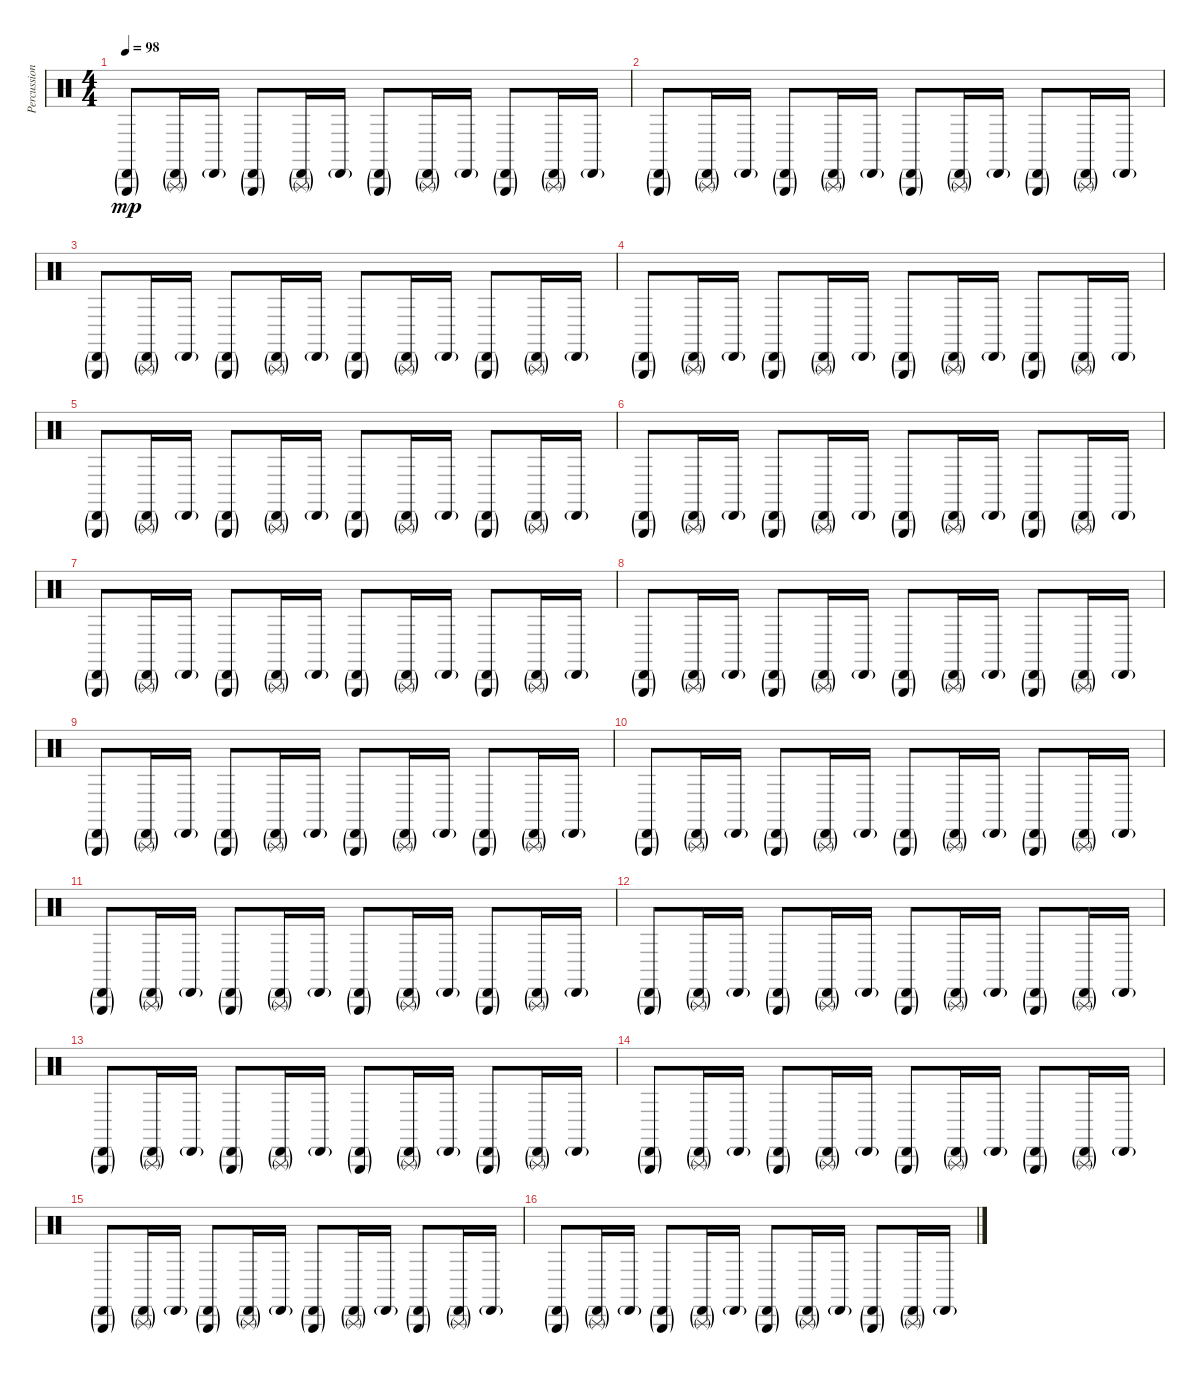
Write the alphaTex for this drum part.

\track ("Percussion" "Percussion") {instrument percussion}
\staff {score}
\articulation defaults
\ts (4 4)
\tempo 98
\clef neutral
\ks c
("Cabasa (hit)"{g} "Triangle (hit)"{g}).8{dy mp} ("Cabasa (hit)"{g} "Triangle (rnute)"{g}).16 "Cabasa (hit)"{g}.16 ("Cabasa (hit)"{g} "Triangle (hit)"{g}).8 ("Cabasa (hit)"{g} "Triangle (rnute)"{g}).16 "Cabasa (hit)"{g}.16 ("Cabasa (hit)"{g} "Triangle (hit)"{g}).8 ("Cabasa (hit)"{g} "Triangle (rnute)"{g}).16 "Cabasa (hit)"{g}.16 ("Cabasa (hit)"{g} "Triangle (hit)"{g}).8 ("Cabasa (hit)"{g} "Triangle (rnute)"{g}).16 "Cabasa (hit)"{g}.16 |
("Cabasa (hit)"{g} "Triangle (hit)"{g}).8 ("Cabasa (hit)"{g} "Triangle (rnute)"{g}).16 "Cabasa (hit)"{g}.16 ("Cabasa (hit)"{g} "Triangle (hit)"{g}).8 ("Cabasa (hit)"{g} "Triangle (rnute)"{g}).16 "Cabasa (hit)"{g}.16 ("Cabasa (hit)"{g} "Triangle (hit)"{g}).8 ("Cabasa (hit)"{g} "Triangle (rnute)"{g}).16 "Cabasa (hit)"{g}.16 ("Cabasa (hit)"{g} "Triangle (hit)"{g}).8 ("Cabasa (hit)"{g} "Triangle (rnute)"{g}).16 "Cabasa (hit)"{g}.16 |
("Cabasa (hit)"{g} "Triangle (hit)"{g}).8 ("Cabasa (hit)"{g} "Triangle (rnute)"{g}).16 "Cabasa (hit)"{g}.16 ("Cabasa (hit)"{g} "Triangle (hit)"{g}).8 ("Cabasa (hit)"{g} "Triangle (rnute)"{g}).16 "Cabasa (hit)"{g}.16 ("Cabasa (hit)"{g} "Triangle (hit)"{g}).8 ("Cabasa (hit)"{g} "Triangle (rnute)"{g}).16 "Cabasa (hit)"{g}.16 ("Cabasa (hit)"{g} "Triangle (hit)"{g}).8 ("Cabasa (hit)"{g} "Triangle (rnute)"{g}).16 "Cabasa (hit)"{g}.16 |
("Cabasa (hit)"{g} "Triangle (hit)"{g}).8 ("Cabasa (hit)"{g} "Triangle (rnute)"{g}).16 "Cabasa (hit)"{g}.16 ("Cabasa (hit)"{g} "Triangle (hit)"{g}).8 ("Cabasa (hit)"{g} "Triangle (rnute)"{g}).16 "Cabasa (hit)"{g}.16 ("Cabasa (hit)"{g} "Triangle (hit)"{g}).8 ("Cabasa (hit)"{g} "Triangle (rnute)"{g}).16 "Cabasa (hit)"{g}.16 ("Cabasa (hit)"{g} "Triangle (hit)"{g}).8 ("Cabasa (hit)"{g} "Triangle (rnute)"{g}).16 "Cabasa (hit)"{g}.16 |
("Cabasa (hit)"{g} "Triangle (hit)"{g}).8 ("Cabasa (hit)"{g} "Triangle (rnute)"{g}).16 "Cabasa (hit)"{g}.16 ("Cabasa (hit)"{g} "Triangle (hit)"{g}).8 ("Cabasa (hit)"{g} "Triangle (rnute)"{g}).16 "Cabasa (hit)"{g}.16 ("Cabasa (hit)"{g} "Triangle (hit)"{g}).8 ("Cabasa (hit)"{g} "Triangle (rnute)"{g}).16 "Cabasa (hit)"{g}.16 ("Cabasa (hit)"{g} "Triangle (hit)"{g}).8 ("Cabasa (hit)"{g} "Triangle (rnute)"{g}).16 "Cabasa (hit)"{g}.16 |
("Cabasa (hit)"{g} "Triangle (hit)"{g}).8 ("Cabasa (hit)"{g} "Triangle (rnute)"{g}).16 "Cabasa (hit)"{g}.16 ("Cabasa (hit)"{g} "Triangle (hit)"{g}).8 ("Cabasa (hit)"{g} "Triangle (rnute)"{g}).16 "Cabasa (hit)"{g}.16 ("Cabasa (hit)"{g} "Triangle (hit)"{g}).8 ("Cabasa (hit)"{g} "Triangle (rnute)"{g}).16 "Cabasa (hit)"{g}.16 ("Cabasa (hit)"{g} "Triangle (hit)"{g}).8 ("Cabasa (hit)"{g} "Triangle (rnute)"{g}).16 "Cabasa (hit)"{g}.16 |
("Cabasa (hit)"{g} "Triangle (hit)"{g}).8 ("Cabasa (hit)"{g} "Triangle (rnute)"{g}).16 "Cabasa (hit)"{g}.16 ("Cabasa (hit)"{g} "Triangle (hit)"{g}).8 ("Cabasa (hit)"{g} "Triangle (rnute)"{g}).16 "Cabasa (hit)"{g}.16 ("Cabasa (hit)"{g} "Triangle (hit)"{g}).8 ("Cabasa (hit)"{g} "Triangle (rnute)"{g}).16 "Cabasa (hit)"{g}.16 ("Cabasa (hit)"{g} "Triangle (hit)"{g}).8 ("Cabasa (hit)"{g} "Triangle (rnute)"{g}).16 "Cabasa (hit)"{g}.16 |
("Cabasa (hit)"{g} "Triangle (hit)"{g}).8 ("Cabasa (hit)"{g} "Triangle (rnute)"{g}).16 "Cabasa (hit)"{g}.16 ("Cabasa (hit)"{g} "Triangle (hit)"{g}).8 ("Cabasa (hit)"{g} "Triangle (rnute)"{g}).16 "Cabasa (hit)"{g}.16 ("Cabasa (hit)"{g} "Triangle (hit)"{g}).8 ("Cabasa (hit)"{g} "Triangle (rnute)"{g}).16 "Cabasa (hit)"{g}.16 ("Cabasa (hit)"{g} "Triangle (hit)"{g}).8 ("Cabasa (hit)"{g} "Triangle (rnute)"{g}).16 "Cabasa (hit)"{g}.16 |
("Cabasa (hit)"{g} "Triangle (hit)"{g}).8 ("Cabasa (hit)"{g} "Triangle (rnute)"{g}).16 "Cabasa (hit)"{g}.16 ("Cabasa (hit)"{g} "Triangle (hit)"{g}).8 ("Cabasa (hit)"{g} "Triangle (rnute)"{g}).16 "Cabasa (hit)"{g}.16 ("Cabasa (hit)"{g} "Triangle (hit)"{g}).8 ("Cabasa (hit)"{g} "Triangle (rnute)"{g}).16 "Cabasa (hit)"{g}.16 ("Cabasa (hit)"{g} "Triangle (hit)"{g}).8 ("Cabasa (hit)"{g} "Triangle (rnute)"{g}).16 "Cabasa (hit)"{g}.16 |
("Cabasa (hit)"{g} "Triangle (hit)"{g}).8 ("Cabasa (hit)"{g} "Triangle (rnute)"{g}).16 "Cabasa (hit)"{g}.16 ("Cabasa (hit)"{g} "Triangle (hit)"{g}).8 ("Cabasa (hit)"{g} "Triangle (rnute)"{g}).16 "Cabasa (hit)"{g}.16 ("Cabasa (hit)"{g} "Triangle (hit)"{g}).8 ("Cabasa (hit)"{g} "Triangle (rnute)"{g}).16 "Cabasa (hit)"{g}.16 ("Cabasa (hit)"{g} "Triangle (hit)"{g}).8 ("Cabasa (hit)"{g} "Triangle (rnute)"{g}).16 "Cabasa (hit)"{g}.16 |
("Cabasa (hit)"{g} "Triangle (hit)"{g}).8 ("Cabasa (hit)"{g} "Triangle (rnute)"{g}).16 "Cabasa (hit)"{g}.16 ("Cabasa (hit)"{g} "Triangle (hit)"{g}).8 ("Cabasa (hit)"{g} "Triangle (rnute)"{g}).16 "Cabasa (hit)"{g}.16 ("Cabasa (hit)"{g} "Triangle (hit)"{g}).8 ("Cabasa (hit)"{g} "Triangle (rnute)"{g}).16 "Cabasa (hit)"{g}.16 ("Cabasa (hit)"{g} "Triangle (hit)"{g}).8 ("Cabasa (hit)"{g} "Triangle (rnute)"{g}).16 "Cabasa (hit)"{g}.16 |
("Cabasa (hit)"{g} "Triangle (hit)"{g}).8 ("Cabasa (hit)"{g} "Triangle (rnute)"{g}).16 "Cabasa (hit)"{g}.16 ("Cabasa (hit)"{g} "Triangle (hit)"{g}).8 ("Cabasa (hit)"{g} "Triangle (rnute)"{g}).16 "Cabasa (hit)"{g}.16 ("Cabasa (hit)"{g} "Triangle (hit)"{g}).8 ("Cabasa (hit)"{g} "Triangle (rnute)"{g}).16 "Cabasa (hit)"{g}.16 ("Cabasa (hit)"{g} "Triangle (hit)"{g}).8 ("Cabasa (hit)"{g} "Triangle (rnute)"{g}).16 "Cabasa (hit)"{g}.16 |
("Cabasa (hit)"{g} "Triangle (hit)"{g}).8 ("Cabasa (hit)"{g} "Triangle (rnute)"{g}).16 "Cabasa (hit)"{g}.16 ("Cabasa (hit)"{g} "Triangle (hit)"{g}).8 ("Cabasa (hit)"{g} "Triangle (rnute)"{g}).16 "Cabasa (hit)"{g}.16 ("Cabasa (hit)"{g} "Triangle (hit)"{g}).8 ("Cabasa (hit)"{g} "Triangle (rnute)"{g}).16 "Cabasa (hit)"{g}.16 ("Cabasa (hit)"{g} "Triangle (hit)"{g}).8 ("Cabasa (hit)"{g} "Triangle (rnute)"{g}).16 "Cabasa (hit)"{g}.16 |
("Cabasa (hit)"{g} "Triangle (hit)"{g}).8 ("Cabasa (hit)"{g} "Triangle (rnute)"{g}).16 "Cabasa (hit)"{g}.16 ("Cabasa (hit)"{g} "Triangle (hit)"{g}).8 ("Cabasa (hit)"{g} "Triangle (rnute)"{g}).16 "Cabasa (hit)"{g}.16 ("Cabasa (hit)"{g} "Triangle (hit)"{g}).8 ("Cabasa (hit)"{g} "Triangle (rnute)"{g}).16 "Cabasa (hit)"{g}.16 ("Cabasa (hit)"{g} "Triangle (hit)"{g}).8 ("Cabasa (hit)"{g} "Triangle (rnute)"{g}).16 "Cabasa (hit)"{g}.16 |
("Cabasa (hit)"{g} "Triangle (hit)"{g}).8 ("Cabasa (hit)"{g} "Triangle (rnute)"{g}).16 "Cabasa (hit)"{g}.16 ("Cabasa (hit)"{g} "Triangle (hit)"{g}).8 ("Cabasa (hit)"{g} "Triangle (rnute)"{g}).16 "Cabasa (hit)"{g}.16 ("Cabasa (hit)"{g} "Triangle (hit)"{g}).8 ("Cabasa (hit)"{g} "Triangle (rnute)"{g}).16 "Cabasa (hit)"{g}.16 ("Cabasa (hit)"{g} "Triangle (hit)"{g}).8 ("Cabasa (hit)"{g} "Triangle (rnute)"{g}).16 "Cabasa (hit)"{g}.16 |
("Cabasa (hit)"{g} "Triangle (hit)"{g}).8 ("Cabasa (hit)"{g} "Triangle (rnute)"{g}).16 "Cabasa (hit)"{g}.16 ("Cabasa (hit)"{g} "Triangle (hit)"{g}).8 ("Cabasa (hit)"{g} "Triangle (rnute)"{g}).16 "Cabasa (hit)"{g}.16 ("Cabasa (hit)"{g} "Triangle (hit)"{g}).8 ("Cabasa (hit)"{g} "Triangle (rnute)"{g}).16 "Cabasa (hit)"{g}.16 ("Cabasa (hit)"{g} "Triangle (hit)"{g}).8 ("Cabasa (hit)"{g} "Triangle (rnute)"{g}).16 "Cabasa (hit)"{g}.16
